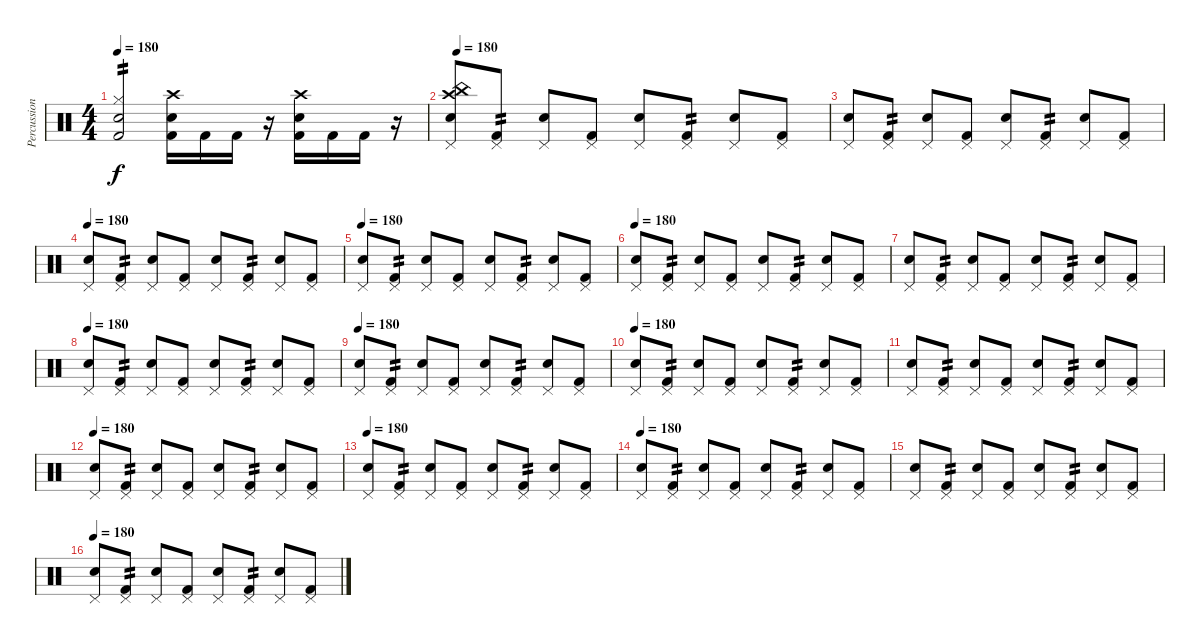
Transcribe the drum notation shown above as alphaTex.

\track ("Percussion" "Percussion") {instrument percussion}
\staff {score}
\articulation defaults
\ts (4 4)
\tempo 180
\clef neutral
\ks c
("Electric Snare (hit)" "Hi-Hat (closed)" "Kick (hit) 2").2{tp 2 dy f} ("Electric Snare (hit)" "Crash high (hit)" "Kick (hit) 2").16 "Kick (hit) 2".16 "Kick (hit) 2".16 r.16 ("Electric Snare (hit)" "Crash high (hit)" "Kick (hit) 2").16 "Kick (hit) 2".16 "Kick (hit) 2".16 r.16 |
\tempo 180
("China (hit)" "Crash high (hit)" "Pedal Hi-Hat (hit)" "Electric Snare (hit)").8 ("Pedal Hi-Hat (hit)" "Kick (hit) 2").8{tp 2} ("Pedal Hi-Hat (hit)" "Electric Snare (hit)").8 ("Pedal Hi-Hat (hit)" "Kick (hit) 2").8 ("Pedal Hi-Hat (hit)" "Electric Snare (hit)").8 ("Pedal Hi-Hat (hit)" "Kick (hit) 2").8{tp 2} ("Pedal Hi-Hat (hit)" "Electric Snare (hit)").8 ("Pedal Hi-Hat (hit)" "Kick (hit) 2").8 |
("Pedal Hi-Hat (hit)" "Electric Snare (hit)").8 ("Pedal Hi-Hat (hit)" "Kick (hit) 2").8{tp 2} ("Pedal Hi-Hat (hit)" "Electric Snare (hit)").8 ("Pedal Hi-Hat (hit)" "Kick (hit) 2").8 ("Pedal Hi-Hat (hit)" "Electric Snare (hit)").8 ("Pedal Hi-Hat (hit)" "Kick (hit) 2").8{tp 2} ("Pedal Hi-Hat (hit)" "Electric Snare (hit)").8 ("Pedal Hi-Hat (hit)" "Kick (hit) 2").8 |
\tempo 180
("Pedal Hi-Hat (hit)" "Electric Snare (hit)").8 ("Pedal Hi-Hat (hit)" "Kick (hit) 2").8{tp 2} ("Pedal Hi-Hat (hit)" "Electric Snare (hit)").8 ("Pedal Hi-Hat (hit)" "Kick (hit) 2").8 ("Pedal Hi-Hat (hit)" "Electric Snare (hit)").8 ("Pedal Hi-Hat (hit)" "Kick (hit) 2").8{tp 2} ("Pedal Hi-Hat (hit)" "Electric Snare (hit)").8 ("Pedal Hi-Hat (hit)" "Kick (hit) 2").8 |
\tempo 180
("Pedal Hi-Hat (hit)" "Electric Snare (hit)").8 ("Pedal Hi-Hat (hit)" "Kick (hit) 2").8{tp 2} ("Pedal Hi-Hat (hit)" "Electric Snare (hit)").8 ("Pedal Hi-Hat (hit)" "Kick (hit) 2").8 ("Pedal Hi-Hat (hit)" "Electric Snare (hit)").8 ("Pedal Hi-Hat (hit)" "Kick (hit) 2").8{tp 2} ("Pedal Hi-Hat (hit)" "Electric Snare (hit)").8 ("Pedal Hi-Hat (hit)" "Kick (hit) 2").8 |
\tempo 180
("Pedal Hi-Hat (hit)" "Electric Snare (hit)").8 ("Pedal Hi-Hat (hit)" "Kick (hit) 2").8{tp 2} ("Pedal Hi-Hat (hit)" "Electric Snare (hit)").8 ("Pedal Hi-Hat (hit)" "Kick (hit) 2").8 ("Pedal Hi-Hat (hit)" "Electric Snare (hit)").8 ("Pedal Hi-Hat (hit)" "Kick (hit) 2").8{tp 2} ("Pedal Hi-Hat (hit)" "Electric Snare (hit)").8 ("Pedal Hi-Hat (hit)" "Kick (hit) 2").8 |
("Pedal Hi-Hat (hit)" "Electric Snare (hit)").8 ("Pedal Hi-Hat (hit)" "Kick (hit) 2").8{tp 2} ("Pedal Hi-Hat (hit)" "Electric Snare (hit)").8 ("Pedal Hi-Hat (hit)" "Kick (hit) 2").8 ("Pedal Hi-Hat (hit)" "Electric Snare (hit)").8 ("Pedal Hi-Hat (hit)" "Kick (hit) 2").8{tp 2} ("Pedal Hi-Hat (hit)" "Electric Snare (hit)").8 ("Pedal Hi-Hat (hit)" "Kick (hit) 2").8 |
\tempo 180
("Pedal Hi-Hat (hit)" "Electric Snare (hit)").8 ("Pedal Hi-Hat (hit)" "Kick (hit) 2").8{tp 2} ("Pedal Hi-Hat (hit)" "Electric Snare (hit)").8 ("Pedal Hi-Hat (hit)" "Kick (hit) 2").8 ("Pedal Hi-Hat (hit)" "Electric Snare (hit)").8 ("Pedal Hi-Hat (hit)" "Kick (hit) 2").8{tp 2} ("Pedal Hi-Hat (hit)" "Electric Snare (hit)").8 ("Pedal Hi-Hat (hit)" "Kick (hit) 2").8 |
\tempo 180
("Pedal Hi-Hat (hit)" "Electric Snare (hit)").8 ("Pedal Hi-Hat (hit)" "Kick (hit) 2").8{tp 2} ("Pedal Hi-Hat (hit)" "Electric Snare (hit)").8 ("Pedal Hi-Hat (hit)" "Kick (hit) 2").8 ("Pedal Hi-Hat (hit)" "Electric Snare (hit)").8 ("Pedal Hi-Hat (hit)" "Kick (hit) 2").8{tp 2} ("Pedal Hi-Hat (hit)" "Electric Snare (hit)").8 ("Pedal Hi-Hat (hit)" "Kick (hit) 2").8 |
\tempo 180
("Pedal Hi-Hat (hit)" "Electric Snare (hit)").8 ("Pedal Hi-Hat (hit)" "Kick (hit) 2").8{tp 2} ("Pedal Hi-Hat (hit)" "Electric Snare (hit)").8 ("Pedal Hi-Hat (hit)" "Kick (hit) 2").8 ("Pedal Hi-Hat (hit)" "Electric Snare (hit)").8 ("Pedal Hi-Hat (hit)" "Kick (hit) 2").8{tp 2} ("Pedal Hi-Hat (hit)" "Electric Snare (hit)").8 ("Pedal Hi-Hat (hit)" "Kick (hit) 2").8 |
("Pedal Hi-Hat (hit)" "Electric Snare (hit)").8 ("Pedal Hi-Hat (hit)" "Kick (hit) 2").8{tp 2} ("Pedal Hi-Hat (hit)" "Electric Snare (hit)").8 ("Pedal Hi-Hat (hit)" "Kick (hit) 2").8 ("Pedal Hi-Hat (hit)" "Electric Snare (hit)").8 ("Pedal Hi-Hat (hit)" "Kick (hit) 2").8{tp 2} ("Pedal Hi-Hat (hit)" "Electric Snare (hit)").8 ("Pedal Hi-Hat (hit)" "Kick (hit) 2").8 |
\tempo 180
("Pedal Hi-Hat (hit)" "Electric Snare (hit)").8 ("Pedal Hi-Hat (hit)" "Kick (hit) 2").8{tp 2} ("Pedal Hi-Hat (hit)" "Electric Snare (hit)").8 ("Pedal Hi-Hat (hit)" "Kick (hit) 2").8 ("Pedal Hi-Hat (hit)" "Electric Snare (hit)").8 ("Pedal Hi-Hat (hit)" "Kick (hit) 2").8{tp 2} ("Pedal Hi-Hat (hit)" "Electric Snare (hit)").8 ("Pedal Hi-Hat (hit)" "Kick (hit) 2").8 |
\tempo 180
("Pedal Hi-Hat (hit)" "Electric Snare (hit)").8 ("Pedal Hi-Hat (hit)" "Kick (hit) 2").8{tp 2} ("Pedal Hi-Hat (hit)" "Electric Snare (hit)").8 ("Pedal Hi-Hat (hit)" "Kick (hit) 2").8 ("Pedal Hi-Hat (hit)" "Electric Snare (hit)").8 ("Pedal Hi-Hat (hit)" "Kick (hit) 2").8{tp 2} ("Pedal Hi-Hat (hit)" "Electric Snare (hit)").8 ("Pedal Hi-Hat (hit)" "Kick (hit) 2").8 |
\tempo 180
("Pedal Hi-Hat (hit)" "Electric Snare (hit)").8 ("Pedal Hi-Hat (hit)" "Kick (hit) 2").8{tp 2} ("Pedal Hi-Hat (hit)" "Electric Snare (hit)").8 ("Pedal Hi-Hat (hit)" "Kick (hit) 2").8 ("Pedal Hi-Hat (hit)" "Electric Snare (hit)").8 ("Pedal Hi-Hat (hit)" "Kick (hit) 2").8{tp 2} ("Pedal Hi-Hat (hit)" "Electric Snare (hit)").8 ("Pedal Hi-Hat (hit)" "Kick (hit) 2").8 |
("Pedal Hi-Hat (hit)" "Electric Snare (hit)").8 ("Pedal Hi-Hat (hit)" "Kick (hit) 2").8{tp 2} ("Pedal Hi-Hat (hit)" "Electric Snare (hit)").8 ("Pedal Hi-Hat (hit)" "Kick (hit) 2").8 ("Pedal Hi-Hat (hit)" "Electric Snare (hit)").8 ("Pedal Hi-Hat (hit)" "Kick (hit) 2").8{tp 2} ("Pedal Hi-Hat (hit)" "Electric Snare (hit)").8 ("Pedal Hi-Hat (hit)" "Kick (hit) 2").8 |
\tempo 180
("Pedal Hi-Hat (hit)" "Electric Snare (hit)").8 ("Pedal Hi-Hat (hit)" "Kick (hit) 2").8{tp 2} ("Pedal Hi-Hat (hit)" "Electric Snare (hit)").8 ("Pedal Hi-Hat (hit)" "Kick (hit) 2").8 ("Pedal Hi-Hat (hit)" "Electric Snare (hit)").8 ("Pedal Hi-Hat (hit)" "Kick (hit) 2").8{tp 2} ("Pedal Hi-Hat (hit)" "Electric Snare (hit)").8 ("Pedal Hi-Hat (hit)" "Kick (hit) 2").8
